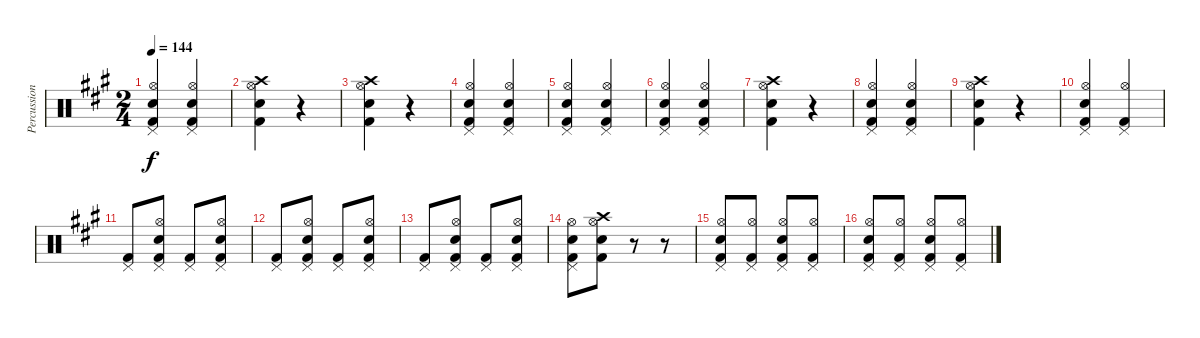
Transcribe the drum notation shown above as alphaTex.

\track ("Percussion" "Percussion") {instrument percussion}
\staff {score}
\articulation defaults
\ts (2 4)
\tempo 144
\clef neutral
\ks a
("Pedal Hi-Hat (hit)" "Hi-Hat (open)" "Snare (hit) 2" "Kick (hit) 2").4{dy f} ("Pedal Hi-Hat (hit)" "Hi-Hat (open)" "Snare (hit) 2" "Kick (hit) 2").4 |
("Crash high (hit)" "Hi-Hat (open)" "Snare (hit) 2" "Kick (hit) 2").4 r.4 |
("Crash high (hit)" "Hi-Hat (open)" "Snare (hit) 2" "Kick (hit) 2").4 r.4 |
("Pedal Hi-Hat (hit)" "Hi-Hat (open)" "Snare (hit) 2" "Kick (hit) 2").4 ("Pedal Hi-Hat (hit)" "Hi-Hat (open)" "Snare (hit) 2" "Kick (hit) 2").4 |
("Pedal Hi-Hat (hit)" "Hi-Hat (open)" "Snare (hit) 2" "Kick (hit) 2").4 ("Pedal Hi-Hat (hit)" "Hi-Hat (open)" "Snare (hit) 2" "Kick (hit) 2").4 |
("Pedal Hi-Hat (hit)" "Hi-Hat (open)" "Snare (hit) 2" "Kick (hit) 2").4 ("Pedal Hi-Hat (hit)" "Hi-Hat (open)" "Snare (hit) 2" "Kick (hit) 2").4 |
("Crash high (hit)" "Hi-Hat (open)" "Snare (hit) 2" "Kick (hit) 2").4 r.4 |
("Pedal Hi-Hat (hit)" "Hi-Hat (open)" "Snare (hit) 2" "Kick (hit) 2").4 ("Pedal Hi-Hat (hit)" "Hi-Hat (open)" "Snare (hit) 2" "Kick (hit) 2").4 |
("Crash high (hit)" "Hi-Hat (open)" "Snare (hit) 2" "Kick (hit) 2").4 r.4 |
("Pedal Hi-Hat (hit)" "Hi-Hat (open)" "Snare (hit) 2" "Kick (hit) 2").4 ("Pedal Hi-Hat (hit)" "Hi-Hat (open)" "Kick (hit) 2").4 |
("Pedal Hi-Hat (hit)" "Kick (hit) 2").8 ("Pedal Hi-Hat (hit)" "Hi-Hat (open)" "Snare (hit) 2" "Kick (hit) 2").8 ("Pedal Hi-Hat (hit)" "Kick (hit) 2").8 ("Pedal Hi-Hat (hit)" "Hi-Hat (open)" "Snare (hit) 2" "Kick (hit) 2").8 |
("Pedal Hi-Hat (hit)" "Kick (hit) 2").8 ("Pedal Hi-Hat (hit)" "Hi-Hat (open)" "Snare (hit) 2" "Kick (hit) 2").8 ("Pedal Hi-Hat (hit)" "Kick (hit) 2").8 ("Pedal Hi-Hat (hit)" "Hi-Hat (open)" "Snare (hit) 2" "Kick (hit) 2").8 |
("Pedal Hi-Hat (hit)" "Kick (hit) 2").8 ("Pedal Hi-Hat (hit)" "Hi-Hat (open)" "Snare (hit) 2" "Kick (hit) 2").8 ("Pedal Hi-Hat (hit)" "Kick (hit) 2").8 ("Pedal Hi-Hat (hit)" "Hi-Hat (open)" "Snare (hit) 2" "Kick (hit) 2").8 |
("Pedal Hi-Hat (hit)" "Hi-Hat (open)" "Snare (hit) 2" "Kick (hit) 2").8 ("Crash high (hit)" "Hi-Hat (open)" "Snare (hit) 2" "Kick (hit) 2").8 r.8 r.8 |
("Pedal Hi-Hat (hit)" "Hi-Hat (open)" "Snare (hit) 2" "Kick (hit) 2").8 ("Pedal Hi-Hat (hit)" "Hi-Hat (open)" "Kick (hit) 2").8 ("Pedal Hi-Hat (hit)" "Hi-Hat (open)" "Snare (hit) 2" "Kick (hit) 2").8 ("Pedal Hi-Hat (hit)" "Hi-Hat (open)" "Kick (hit) 2").8 |
("Pedal Hi-Hat (hit)" "Hi-Hat (open)" "Snare (hit) 2" "Kick (hit) 2").8 ("Pedal Hi-Hat (hit)" "Hi-Hat (open)" "Kick (hit) 2").8 ("Pedal Hi-Hat (hit)" "Hi-Hat (open)" "Snare (hit) 2" "Kick (hit) 2").8 ("Pedal Hi-Hat (hit)" "Hi-Hat (open)" "Kick (hit) 2").8
